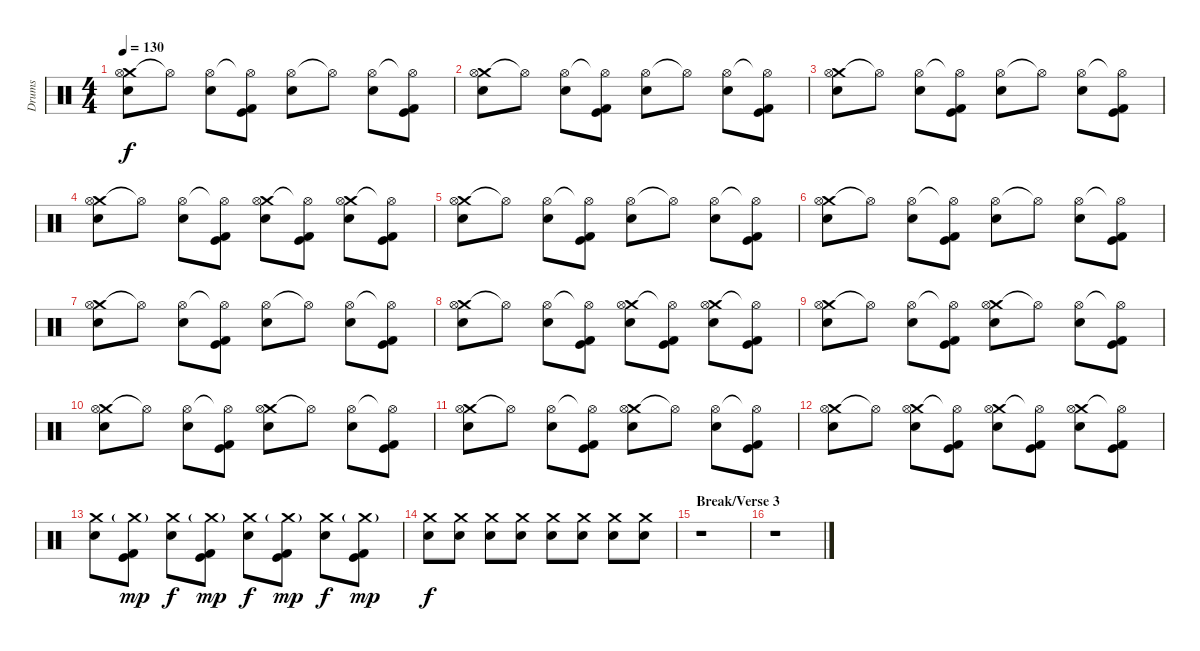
\track ("Drums" "Drums") {instrument percussion}
\staff {score}
\articulation defaults
\ts (4 4)
\tempo 130
\clef neutral
\ks c
("Crash medium (hit)" "Hi-Hat (open)" "Electric Snare (hit)").8{dy f} "Hi-Hat (open)"{t}.8 ("Hi-Hat (open)" "Electric Snare (hit)").8 ("Hi-Hat (open)"{t} "Kick (hit) 2" "Kick (hit)").8 ("Hi-Hat (open)" "Electric Snare (hit)").8 "Hi-Hat (open)"{t}.8 ("Hi-Hat (open)" "Electric Snare (hit)").8 ("Hi-Hat (open)"{t} "Kick (hit) 2" "Kick (hit)").8 |
("Crash medium (hit)" "Hi-Hat (open)" "Electric Snare (hit)").8 "Hi-Hat (open)"{t}.8 ("Hi-Hat (open)" "Electric Snare (hit)").8 ("Hi-Hat (open)"{t} "Kick (hit) 2" "Kick (hit)").8 ("Hi-Hat (open)" "Electric Snare (hit)").8 "Hi-Hat (open)"{t}.8 ("Hi-Hat (open)" "Electric Snare (hit)").8 ("Hi-Hat (open)"{t} "Kick (hit) 2" "Kick (hit)").8 |
("Crash medium (hit)" "Hi-Hat (open)" "Electric Snare (hit)").8 "Hi-Hat (open)"{t}.8 ("Hi-Hat (open)" "Electric Snare (hit)").8 ("Hi-Hat (open)"{t} "Kick (hit) 2" "Kick (hit)").8 ("Hi-Hat (open)" "Electric Snare (hit)").8 "Hi-Hat (open)"{t}.8 ("Hi-Hat (open)" "Electric Snare (hit)").8 ("Hi-Hat (open)"{t} "Kick (hit) 2" "Kick (hit)").8 |
("Crash medium (hit)" "Hi-Hat (open)" "Electric Snare (hit)").8 "Hi-Hat (open)"{t}.8 ("Hi-Hat (open)" "Electric Snare (hit)").8 ("Hi-Hat (open)"{t} "Kick (hit) 2" "Kick (hit)").8 ("Crash medium (hit)" "Hi-Hat (open)" "Electric Snare (hit)").8 ("Hi-Hat (open)"{t} "Kick (hit) 2" "Kick (hit)").8 ("Crash medium (hit)" "Hi-Hat (open)" "Electric Snare (hit)").8 ("Hi-Hat (open)"{t} "Kick (hit) 2" "Kick (hit)").8 |
("Crash medium (hit)" "Hi-Hat (open)" "Electric Snare (hit)").8 "Hi-Hat (open)"{t}.8 ("Hi-Hat (open)" "Electric Snare (hit)").8 ("Hi-Hat (open)"{t} "Kick (hit) 2" "Kick (hit)").8 ("Hi-Hat (open)" "Electric Snare (hit)").8 "Hi-Hat (open)"{t}.8 ("Hi-Hat (open)" "Electric Snare (hit)").8 ("Hi-Hat (open)"{t} "Kick (hit) 2" "Kick (hit)").8 |
("Crash medium (hit)" "Hi-Hat (open)" "Electric Snare (hit)").8 "Hi-Hat (open)"{t}.8 ("Hi-Hat (open)" "Electric Snare (hit)").8 ("Hi-Hat (open)"{t} "Kick (hit) 2" "Kick (hit)").8 ("Hi-Hat (open)" "Electric Snare (hit)").8 "Hi-Hat (open)"{t}.8 ("Hi-Hat (open)" "Electric Snare (hit)").8 ("Hi-Hat (open)"{t} "Kick (hit) 2" "Kick (hit)").8 |
("Crash medium (hit)" "Hi-Hat (open)" "Electric Snare (hit)").8 "Hi-Hat (open)"{t}.8 ("Hi-Hat (open)" "Electric Snare (hit)").8 ("Hi-Hat (open)"{t} "Kick (hit) 2" "Kick (hit)").8 ("Hi-Hat (open)" "Electric Snare (hit)").8 "Hi-Hat (open)"{t}.8 ("Hi-Hat (open)" "Electric Snare (hit)").8 ("Hi-Hat (open)"{t} "Kick (hit) 2" "Kick (hit)").8 |
("Crash medium (hit)" "Hi-Hat (open)" "Electric Snare (hit)").8 "Hi-Hat (open)"{t}.8 ("Hi-Hat (open)" "Electric Snare (hit)").8 ("Hi-Hat (open)"{t} "Kick (hit) 2" "Kick (hit)").8 ("Crash medium (hit)" "Hi-Hat (open)" "Electric Snare (hit)").8 ("Hi-Hat (open)"{t} "Kick (hit) 2" "Kick (hit)").8 ("Crash medium (hit)" "Hi-Hat (open)" "Electric Snare (hit)").8 ("Hi-Hat (open)"{t} "Kick (hit) 2" "Kick (hit)").8 |
("Crash medium (hit)" "Hi-Hat (open)" "Electric Snare (hit)").8 "Hi-Hat (open)"{t}.8 ("Hi-Hat (open)" "Electric Snare (hit)").8 ("Hi-Hat (open)"{t} "Kick (hit) 2" "Kick (hit)").8 ("Crash medium (hit)" "Hi-Hat (open)" "Electric Snare (hit)").8 "Hi-Hat (open)"{t}.8 ("Hi-Hat (open)" "Electric Snare (hit)").8 ("Hi-Hat (open)"{t} "Kick (hit) 2" "Kick (hit)").8 |
("Crash medium (hit)" "Hi-Hat (open)" "Electric Snare (hit)").8 "Hi-Hat (open)"{t}.8 ("Hi-Hat (open)" "Electric Snare (hit)").8 ("Hi-Hat (open)"{t} "Kick (hit) 2" "Kick (hit)").8 ("Crash medium (hit)" "Hi-Hat (open)" "Electric Snare (hit)").8 "Hi-Hat (open)"{t}.8 ("Hi-Hat (open)" "Electric Snare (hit)").8 ("Hi-Hat (open)"{t} "Kick (hit) 2" "Kick (hit)").8 |
("Crash medium (hit)" "Hi-Hat (open)" "Electric Snare (hit)").8 "Hi-Hat (open)"{t}.8 ("Hi-Hat (open)" "Electric Snare (hit)").8 ("Hi-Hat (open)"{t} "Kick (hit) 2" "Kick (hit)").8 ("Crash medium (hit)" "Hi-Hat (open)" "Electric Snare (hit)").8 "Hi-Hat (open)"{t}.8 ("Hi-Hat (open)" "Electric Snare (hit)").8 ("Hi-Hat (open)"{t} "Kick (hit) 2" "Kick (hit)").8 |
("Crash medium (hit)" "Hi-Hat (open)" "Electric Snare (hit)").8 "Hi-Hat (open)"{t}.8 ("Crash medium (hit)" "Hi-Hat (open)" "Electric Snare (hit)").8 ("Hi-Hat (open)"{t} "Kick (hit) 2" "Kick (hit)").8 ("Crash medium (hit)" "Hi-Hat (open)" "Electric Snare (hit)").8 ("Hi-Hat (open)"{t} "Kick (hit) 2" "Kick (hit)").8 ("Crash medium (hit)" "Hi-Hat (open)" "Electric Snare (hit)").8 ("Hi-Hat (open)"{t} "Kick (hit) 2" "Kick (hit)").8 |
("Crash medium (hit)" "Electric Snare (hit)").8 ("Crash medium (hit)"{g} "Kick (hit) 2" "Kick (hit)").8{dy mp} ("Crash medium (hit)" "Electric Snare (hit)").8{dy f} ("Crash medium (hit)"{g} "Kick (hit) 2" "Kick (hit)").8{dy mp} ("Crash medium (hit)" "Electric Snare (hit)").8{dy f} ("Crash medium (hit)"{g} "Kick (hit) 2" "Kick (hit)").8{dy mp} ("Crash medium (hit)" "Electric Snare (hit)").8{dy f} ("Crash medium (hit)"{g} "Kick (hit) 2" "Kick (hit)").8{dy mp} |
("Crash medium (hit)" "Electric Snare (hit)").8{dy f} ("Crash medium (hit)" "Electric Snare (hit)").8 ("Crash medium (hit)" "Electric Snare (hit)").8 ("Crash medium (hit)" "Electric Snare (hit)").8 ("Crash medium (hit)" "Electric Snare (hit)").8 ("Crash medium (hit)" "Electric Snare (hit)").8 ("Crash medium (hit)" "Electric Snare (hit)").8 ("Crash medium (hit)" "Electric Snare (hit)").8 |
\section ("" "Break/Verse 3")
r.1 |
r.1
